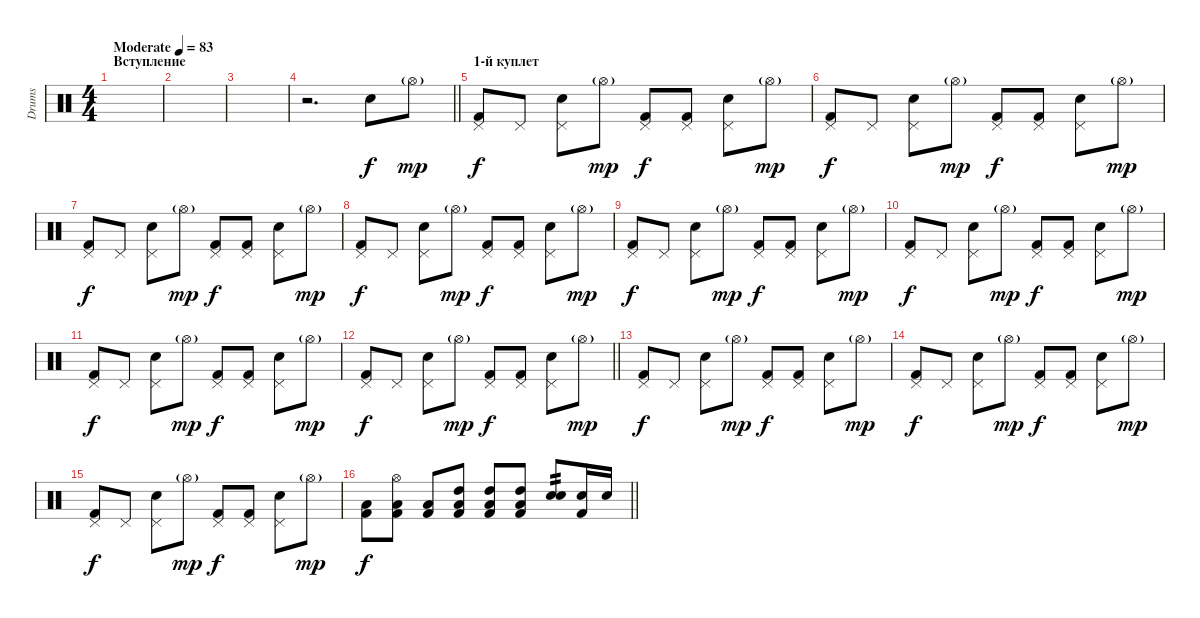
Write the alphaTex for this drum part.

\track ("Drums" "Drums") {instrument percussion}
\staff {score}
\articulation defaults
\ts (4 4)
\section ("" "Вступление")
\tempo (83 "Moderate")
\clef neutral
\ks c
|
|
|
\barLineRight lightlight
r.2{d} "Electric Snare (hit)".8 "Hi-Hat (open)"{g}.8{dy mp} |
\section ("" "1-й куплет")
("Pedal Hi-Hat (hit)" "Kick (hit) 2").8{dy f} "Pedal Hi-Hat (hit)".8 ("Pedal Hi-Hat (hit)" "Electric Snare (hit)").8 "Hi-Hat (open)"{g}.8{dy mp} ("Pedal Hi-Hat (hit)" "Kick (hit) 2").8{dy f} ("Pedal Hi-Hat (hit)" "Kick (hit) 2").8 ("Pedal Hi-Hat (hit)" "Electric Snare (hit)").8 "Hi-Hat (open)"{g}.8{dy mp} |
("Pedal Hi-Hat (hit)" "Kick (hit) 2").8{dy f} "Pedal Hi-Hat (hit)".8 ("Pedal Hi-Hat (hit)" "Electric Snare (hit)").8 "Hi-Hat (open)"{g}.8{dy mp} ("Pedal Hi-Hat (hit)" "Kick (hit) 2").8{dy f} ("Pedal Hi-Hat (hit)" "Kick (hit) 2").8 ("Pedal Hi-Hat (hit)" "Electric Snare (hit)").8 "Hi-Hat (open)"{g}.8{dy mp} |
("Pedal Hi-Hat (hit)" "Kick (hit) 2").8{dy f} "Pedal Hi-Hat (hit)".8 ("Pedal Hi-Hat (hit)" "Electric Snare (hit)").8 "Hi-Hat (open)"{g}.8{dy mp} ("Pedal Hi-Hat (hit)" "Kick (hit) 2").8{dy f} ("Pedal Hi-Hat (hit)" "Kick (hit) 2").8 ("Pedal Hi-Hat (hit)" "Electric Snare (hit)").8 "Hi-Hat (open)"{g}.8{dy mp} |
("Pedal Hi-Hat (hit)" "Kick (hit) 2").8{dy f} "Pedal Hi-Hat (hit)".8 ("Pedal Hi-Hat (hit)" "Electric Snare (hit)").8 "Hi-Hat (open)"{g}.8{dy mp} ("Pedal Hi-Hat (hit)" "Kick (hit) 2").8{dy f} ("Pedal Hi-Hat (hit)" "Kick (hit) 2").8 ("Pedal Hi-Hat (hit)" "Electric Snare (hit)").8 "Hi-Hat (open)"{g}.8{dy mp} |
("Pedal Hi-Hat (hit)" "Kick (hit) 2").8{dy f} "Pedal Hi-Hat (hit)".8 ("Pedal Hi-Hat (hit)" "Electric Snare (hit)").8 "Hi-Hat (open)"{g}.8{dy mp} ("Pedal Hi-Hat (hit)" "Kick (hit) 2").8{dy f} ("Pedal Hi-Hat (hit)" "Kick (hit) 2").8 ("Pedal Hi-Hat (hit)" "Electric Snare (hit)").8 "Hi-Hat (open)"{g}.8{dy mp} |
("Pedal Hi-Hat (hit)" "Kick (hit) 2").8{dy f} "Pedal Hi-Hat (hit)".8 ("Pedal Hi-Hat (hit)" "Electric Snare (hit)").8 "Hi-Hat (open)"{g}.8{dy mp} ("Pedal Hi-Hat (hit)" "Kick (hit) 2").8{dy f} ("Pedal Hi-Hat (hit)" "Kick (hit) 2").8 ("Pedal Hi-Hat (hit)" "Electric Snare (hit)").8 "Hi-Hat (open)"{g}.8{dy mp} |
("Pedal Hi-Hat (hit)" "Kick (hit) 2").8{dy f} "Pedal Hi-Hat (hit)".8 ("Pedal Hi-Hat (hit)" "Electric Snare (hit)").8 "Hi-Hat (open)"{g}.8{dy mp} ("Pedal Hi-Hat (hit)" "Kick (hit) 2").8{dy f} ("Pedal Hi-Hat (hit)" "Kick (hit) 2").8 ("Pedal Hi-Hat (hit)" "Electric Snare (hit)").8 "Hi-Hat (open)"{g}.8{dy mp} |
\barLineRight lightlight
("Pedal Hi-Hat (hit)" "Kick (hit) 2").8{dy f} "Pedal Hi-Hat (hit)".8 ("Pedal Hi-Hat (hit)" "Electric Snare (hit)").8 "Hi-Hat (open)"{g}.8{dy mp} ("Pedal Hi-Hat (hit)" "Kick (hit) 2").8{dy f} ("Pedal Hi-Hat (hit)" "Kick (hit) 2").8 ("Pedal Hi-Hat (hit)" "Electric Snare (hit)").8 "Hi-Hat (open)"{g}.8{dy mp} |
\section ("" "")
("Pedal Hi-Hat (hit)" "Kick (hit) 2").8{dy f} "Pedal Hi-Hat (hit)".8 ("Pedal Hi-Hat (hit)" "Electric Snare (hit)").8 "Hi-Hat (open)"{g}.8{dy mp} ("Pedal Hi-Hat (hit)" "Kick (hit) 2").8{dy f} ("Pedal Hi-Hat (hit)" "Kick (hit) 2").8 ("Pedal Hi-Hat (hit)" "Electric Snare (hit)").8 "Hi-Hat (open)"{g}.8{dy mp} |
("Pedal Hi-Hat (hit)" "Kick (hit) 2").8{dy f} "Pedal Hi-Hat (hit)".8 ("Pedal Hi-Hat (hit)" "Electric Snare (hit)").8 "Hi-Hat (open)"{g}.8{dy mp} ("Pedal Hi-Hat (hit)" "Kick (hit) 2").8{dy f} ("Pedal Hi-Hat (hit)" "Kick (hit) 2").8 ("Pedal Hi-Hat (hit)" "Electric Snare (hit)").8 "Hi-Hat (open)"{g}.8{dy mp} |
("Pedal Hi-Hat (hit)" "Kick (hit) 2").8{dy f} "Pedal Hi-Hat (hit)".8 ("Pedal Hi-Hat (hit)" "Electric Snare (hit)").8 "Hi-Hat (open)"{g}.8{dy mp} ("Pedal Hi-Hat (hit)" "Kick (hit) 2").8{dy f} ("Pedal Hi-Hat (hit)" "Kick (hit) 2").8 ("Pedal Hi-Hat (hit)" "Electric Snare (hit)").8 "Hi-Hat (open)"{g}.8{dy mp} |
\barLineRight lightlight
("Low Tom (hit)" "Kick (hit) 2").8{dy f} ("Hi-Hat (open)" "Low Tom (hit)" "Kick (hit) 2").8 ("Low Tom (hit)" "Kick (hit) 2").8 ("Low Tom (hit)" "High Tom (hit)" "Kick (hit) 2").8 ("Low Tom (hit)" "High Tom (hit)" "Kick (hit) 2").8 ("Low Tom (hit)" "High Tom (hit)" "Kick (hit) 2").8 ("Electric Snare (hit)" "Electric Snare (hit)").8{tp 2} ("Electric Snare (hit)" "Kick (hit) 2").16 "Electric Snare (hit)".16
